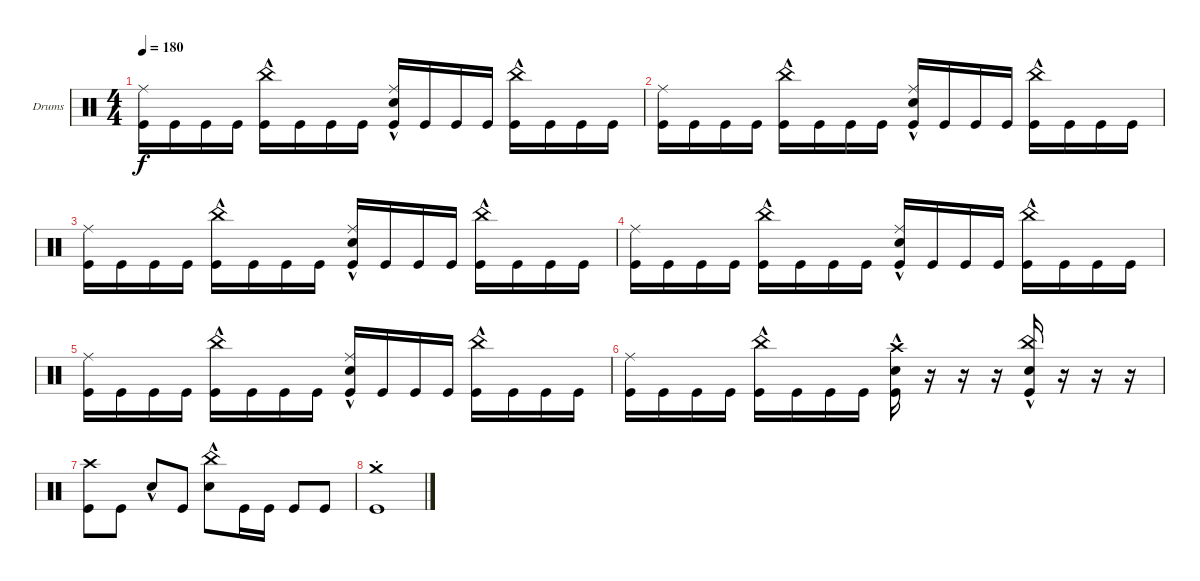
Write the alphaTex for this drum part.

\bracketExtendMode groupsimilarinstruments
\firstSystemTrackNameOrientation horizontal
\otherSystemsTrackNameOrientation horizontal
\track ("Drumkit" "Drums") {instrument percussion}
\staff {score}
\articulation defaults
\ts (4 4)
\tempo 180
\clef neutral
\scale
0.333333
\ks c
("Kick (hit)" "Ride (middle)").16{dy f} "Kick (hit)".16 "Kick (hit)".16 "Kick (hit)".16 ("Kick (hit)" "China (hit)"{hac}).16 "Kick (hit)".16 "Kick (hit)".16 "Kick (hit)".16 ("Kick (hit)" "Snare (hit) 2"{hac} "Ride (middle)").16 "Kick (hit)".16 "Kick (hit)".16 "Kick (hit)".16 ("Kick (hit)" "China (hit)"{hac}).16 "Kick (hit)".16 "Kick (hit)".16 "Kick (hit)".16 |
\scale
0.333333 ("Kick (hit)" "Ride (middle)").16 "Kick (hit)".16 "Kick (hit)".16 "Kick (hit)".16 ("Kick (hit)" "China (hit)"{hac}).16 "Kick (hit)".16 "Kick (hit)".16 "Kick (hit)".16 ("Kick (hit)" "Snare (hit) 2"{hac} "Ride (middle)").16 "Kick (hit)".16 "Kick (hit)".16 "Kick (hit)".16 ("Kick (hit)" "China (hit)"{hac}).16 "Kick (hit)".16 "Kick (hit)".16 "Kick (hit)".16 |
\scale
0.333333 ("Kick (hit)" "Ride (middle)").16 "Kick (hit)".16 "Kick (hit)".16 "Kick (hit)".16 ("Kick (hit)" "China (hit)"{hac}).16 "Kick (hit)".16 "Kick (hit)".16 "Kick (hit)".16 ("Kick (hit)" "Snare (hit) 2"{hac} "Ride (middle)").16 "Kick (hit)".16 "Kick (hit)".16 "Kick (hit)".16 ("Kick (hit)" "China (hit)"{hac}).16 "Kick (hit)".16 "Kick (hit)".16 "Kick (hit)".16 |
\scale
0.333333 ("Kick (hit)" "Ride (middle)").16 "Kick (hit)".16 "Kick (hit)".16 "Kick (hit)".16 ("Kick (hit)" "China (hit)"{hac}).16 "Kick (hit)".16 "Kick (hit)".16 "Kick (hit)".16 ("Kick (hit)" "Snare (hit) 2"{hac} "Ride (middle)").16 "Kick (hit)".16 "Kick (hit)".16 "Kick (hit)".16 ("Kick (hit)" "China (hit)"{hac}).16 "Kick (hit)".16 "Kick (hit)".16 "Kick (hit)".16 |
\scale
0.333333 ("Kick (hit)" "Ride (middle)").16 "Kick (hit)".16 "Kick (hit)".16 "Kick (hit)".16 ("Kick (hit)" "China (hit)"{hac}).16 "Kick (hit)".16 "Kick (hit)".16 "Kick (hit)".16 ("Kick (hit)" "Snare (hit) 2"{hac} "Ride (middle)").16 "Kick (hit)".16 "Kick (hit)".16 "Kick (hit)".16 ("Kick (hit)" "China (hit)"{hac}).16 "Kick (hit)".16 "Kick (hit)".16 "Kick (hit)".16 |
\scale
0.333333 ("Kick (hit)" "Ride (middle)").16 "Kick (hit)".16 "Kick (hit)".16 "Kick (hit)".16 ("Kick (hit)" "China (hit)"{hac}).16 "Kick (hit)".16 "Kick (hit)".16 "Kick (hit)".16 ("Kick (hit)" "Snare (hit) 2"{hac} "Crash high (hit)").16 r.16 r.16 r.16 ("China (hit)"{hac} "Snare (hit) 2" "Kick (hit)"{hac}).16 r.16 r.16 r.16 |
\scale
0.333333 ("Kick (hit)" "Crash high (hit)").8 "Kick (hit)".8 "Snare (hit) 2"{hac}.8 "Kick (hit)".8 ("Snare (hit) 2"{hac} "China (hit)").8 "Kick (hit)".16 "Kick (hit)".16 "Kick (hit)".8 "Kick (hit)".8 |
("Kick (hit)" "Crash medium (hit)"{st}).1
